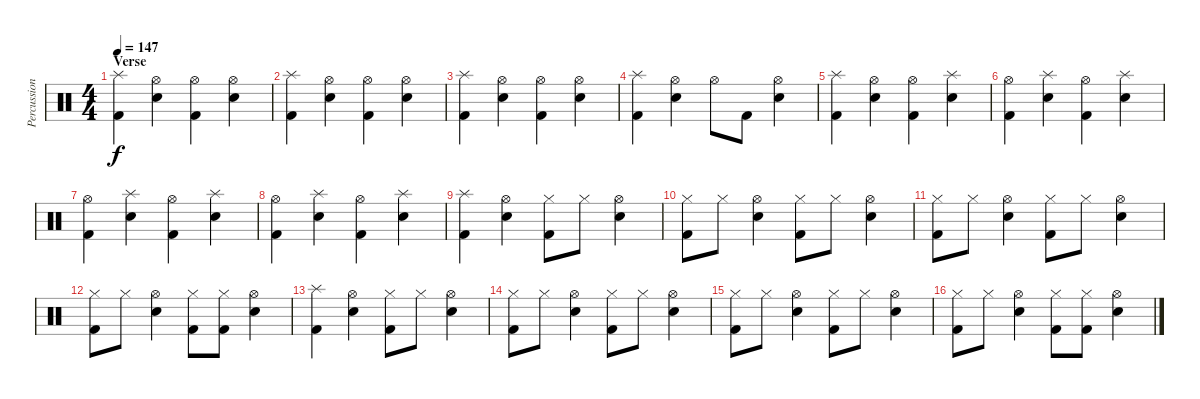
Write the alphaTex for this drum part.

\track ("Percussion" "Percussion") {instrument percussion}
\staff {score}
\articulation defaults
\ts (4 4)
\section ("" "Verse")
\tempo 147
\clef neutral
\ks c
("Splash (hit)" "Kick (hit) 2").4{dy f} ("Hi-Hat (open)" "Snare (hit) 2").4 ("Hi-Hat (open)" "Kick (hit) 2").4 ("Hi-Hat (open)" "Snare (hit) 2").4 |
("Splash (hit)" "Kick (hit) 2").4 ("Hi-Hat (open)" "Snare (hit) 2").4 ("Hi-Hat (open)" "Kick (hit) 2").4 ("Hi-Hat (open)" "Snare (hit) 2").4 |
("Splash (hit)" "Kick (hit) 2").4 ("Hi-Hat (open)" "Snare (hit) 2").4 ("Hi-Hat (open)" "Kick (hit) 2").4 ("Hi-Hat (open)" "Snare (hit) 2").4 |
("Splash (hit)" "Kick (hit) 2").4 ("Hi-Hat (open)" "Snare (hit) 2").4 "Hi-Hat (open)".8 "Kick (hit) 2".8 ("Hi-Hat (open)" "Snare (hit) 2").4 |
("Splash (hit)" "Kick (hit) 2").4 ("Hi-Hat (open)" "Snare (hit) 2").4 ("Hi-Hat (open)" "Kick (hit) 2").4 ("Splash (hit)" "Snare (hit) 2").4 |
("Hi-Hat (open)" "Kick (hit) 2").4 ("Splash (hit)" "Snare (hit) 2").4 ("Hi-Hat (open)" "Kick (hit) 2").4 ("Splash (hit)" "Snare (hit) 2").4 |
("Hi-Hat (open)" "Kick (hit) 2").4 ("Splash (hit)" "Snare (hit) 2").4 ("Hi-Hat (open)" "Kick (hit) 2").4 ("Splash (hit)" "Snare (hit) 2").4 |
("Hi-Hat (open)" "Kick (hit) 2").4 ("Splash (hit)" "Snare (hit) 2").4 ("Hi-Hat (open)" "Kick (hit) 2").4 ("Splash (hit)" "Snare (hit) 2").4 |
("Splash (hit)" "Kick (hit) 2").4 ("Hi-Hat (open)" "Snare (hit) 2").4 ("Hi-Hat (closed)" "Kick (hit) 2").8 "Hi-Hat (closed)".8 ("Hi-Hat (open)" "Snare (hit) 2").4 |
("Hi-Hat (closed)" "Kick (hit) 2").8 "Hi-Hat (closed)".8 ("Hi-Hat (open)" "Snare (hit) 2").4 ("Hi-Hat (closed)" "Kick (hit) 2").8 "Hi-Hat (closed)".8 ("Hi-Hat (open)" "Snare (hit) 2").4 |
("Hi-Hat (closed)" "Kick (hit) 2").8 "Hi-Hat (closed)".8 ("Hi-Hat (open)" "Snare (hit) 2").4 ("Hi-Hat (closed)" "Kick (hit) 2").8 "Hi-Hat (closed)".8 ("Hi-Hat (open)" "Snare (hit) 2").4 |
("Hi-Hat (closed)" "Kick (hit) 2").8 "Hi-Hat (closed)".8 ("Hi-Hat (open)" "Snare (hit) 2").4 ("Hi-Hat (closed)" "Kick (hit) 2").8 ("Hi-Hat (closed)" "Kick (hit) 2").8 ("Hi-Hat (open)" "Snare (hit) 2").4 |
("Splash (hit)" "Kick (hit) 2").4 ("Hi-Hat (open)" "Snare (hit) 2").4 ("Hi-Hat (closed)" "Kick (hit) 2").8 "Hi-Hat (closed)".8 ("Hi-Hat (open)" "Snare (hit) 2").4 |
("Hi-Hat (closed)" "Kick (hit) 2").8 "Hi-Hat (closed)".8 ("Hi-Hat (open)" "Snare (hit) 2").4 ("Hi-Hat (closed)" "Kick (hit) 2").8 "Hi-Hat (closed)".8 ("Hi-Hat (open)" "Snare (hit) 2").4 |
("Hi-Hat (closed)" "Kick (hit) 2").8 "Hi-Hat (closed)".8 ("Hi-Hat (open)" "Snare (hit) 2").4 ("Hi-Hat (closed)" "Kick (hit) 2").8 "Hi-Hat (closed)".8 ("Hi-Hat (open)" "Snare (hit) 2").4 |
("Hi-Hat (closed)" "Kick (hit) 2").8 "Hi-Hat (closed)".8 ("Hi-Hat (open)" "Snare (hit) 2").4 ("Hi-Hat (closed)" "Kick (hit) 2").8 ("Hi-Hat (closed)" "Kick (hit) 2").8 ("Hi-Hat (open)" "Snare (hit) 2").4
